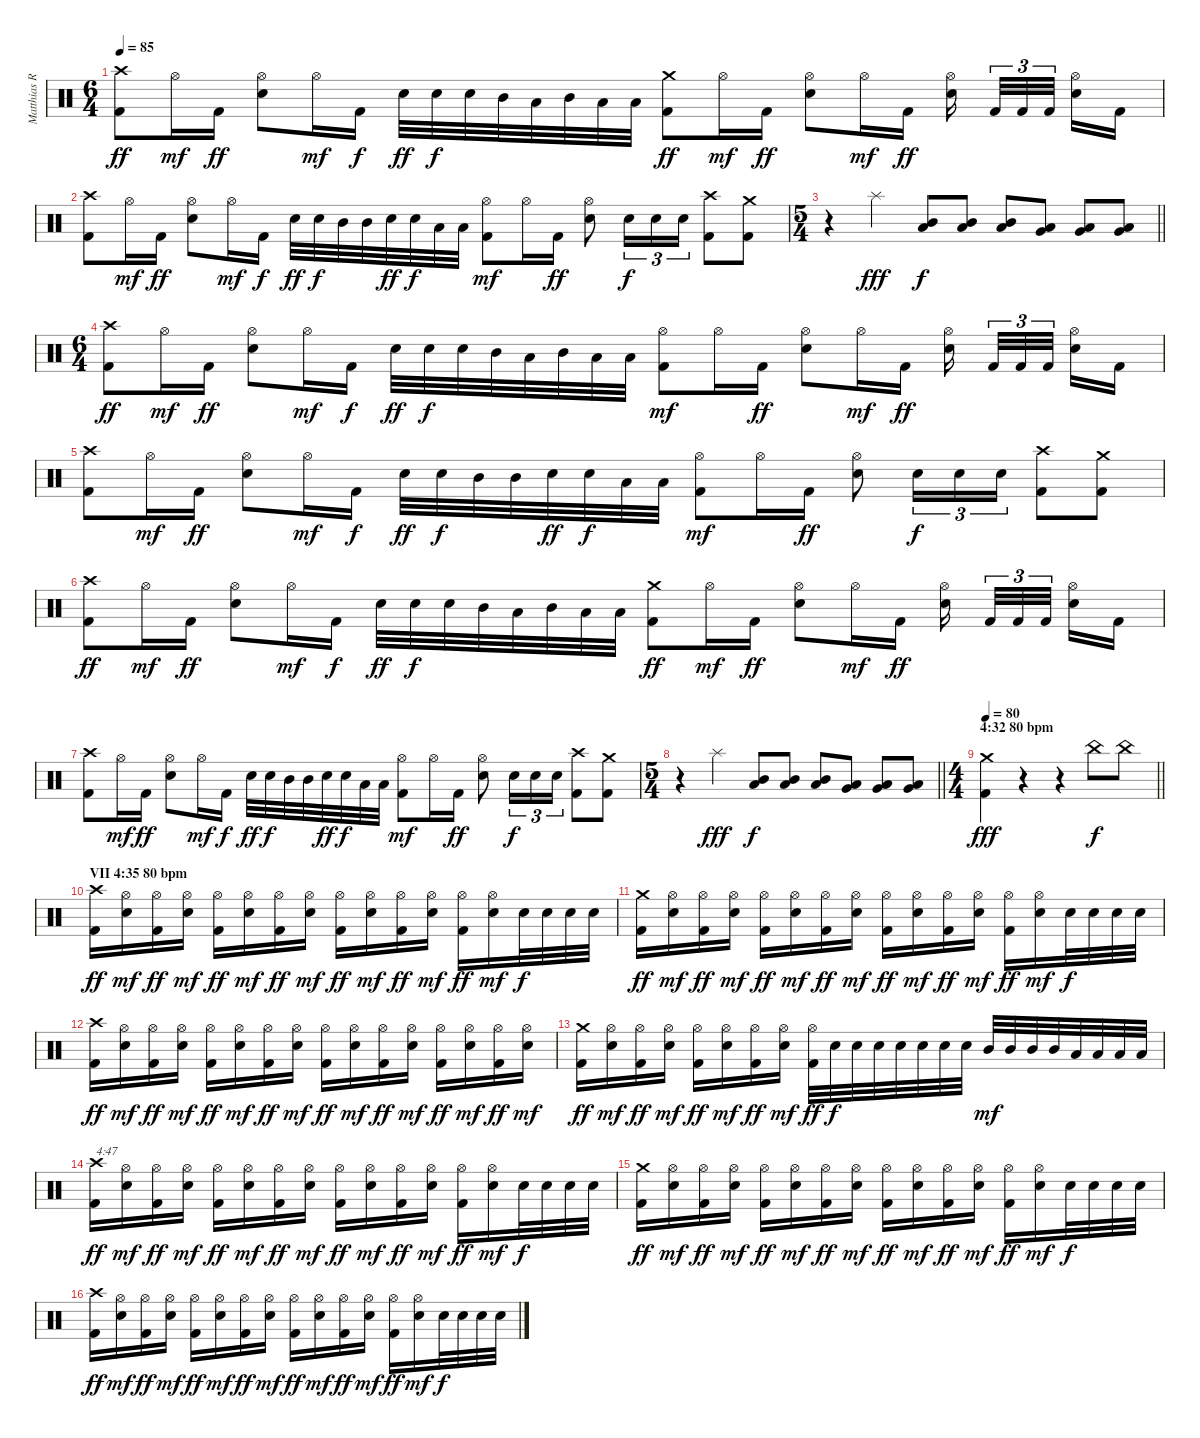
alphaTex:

\track ("Matthias R." "Matthias R") {instrument percussion}
\staff {score}
\articulation defaults
\ts (6 4)
\tempo 85
\clef neutral
\ks c
("Crash high (hit)" "Kick (hit) 2").8{dy ff} "Hi-Hat (open)".16{dy mf} "Kick (hit) 2".16{dy ff} ("Hi-Hat (open)" "Electric Snare (hit)").8 "Hi-Hat (open)".16{dy mf} "Kick (hit) 2".16{dy f} "Electric Snare (hit)".32{dy ff} "Electric Snare (hit)".32{dy f} "Electric Snare (hit)".32 "Mid Tom (hit)".32 "Low Tom (hit)".32 "Mid Tom (hit)".32 "Low Tom (hit)".32 "Low Tom (hit)".32 ("Crash medium (hit)" "Kick (hit) 2").8{dy ff} "Hi-Hat (open)".16{dy mf} "Kick (hit) 2".16{dy ff} ("Hi-Hat (open)" "Electric Snare (hit)").8 "Hi-Hat (open)".16{dy mf} "Kick (hit) 2".16{dy ff} ("Hi-Hat (open)" "Electric Snare (hit)").16{beam splitsecondary} "Kick (hit) 2".32{tu (3 2)} "Kick (hit) 2".32{tu (3 2)} "Kick (hit) 2".32{tu (3 2) beam splitsecondary} ("Hi-Hat (open)" "Electric Snare (hit)").16 "Kick (hit) 2".16 |
("Crash high (hit)" "Kick (hit) 2").8 "Hi-Hat (open)".16{dy mf} "Kick (hit) 2".16{dy ff} ("Hi-Hat (open)" "Electric Snare (hit)").8 "Hi-Hat (open)".16{dy mf} "Kick (hit) 2".16{dy f} "Electric Snare (hit)".32{dy ff} "Electric Snare (hit)".32{dy f} "Mid Tom (hit)".32 "Mid Tom (hit)".32 "Electric Snare (hit)".32{dy ff} "Electric Snare (hit)".32{dy f} "Low Tom (hit)".32 "Low Tom (hit)".32 ("Hi-Hat (open)" "Kick (hit) 2").8{dy mf} "Hi-Hat (open)".16 "Kick (hit) 2".16{dy ff} ("Hi-Hat (open)" "Electric Snare (hit)").8 "Electric Snare (hit)".16{tu (3 2) dy f} "Electric Snare (hit)".16{tu (3 2)} "Electric Snare (hit)".16{tu (3 2)} ("Crash high (hit)" "Kick (hit) 2").8 ("Crash medium (hit)" "Kick (hit) 2").8 |
\ts (5 4)
\barLineRight lightlight
r.4 "Splash (hit)".4{dy fff} ("Low Tom (hit)" "Mid Tom (hit)").8{dy f} ("Low Tom (hit)" "Mid Tom (hit)").8 ("Low Tom (hit)" "Mid Tom (hit)").8 ("Low Tom (hit)" "Very Low Tom (hit)").8 ("Low Tom (hit)" "Very Low Tom (hit)").8 ("Low Floor Tom (hit)" "Very Low Tom (hit)").8 |
\ts (6 4)
("Crash high (hit)" "Kick (hit) 2").8{dy ff} "Hi-Hat (open)".16{dy mf} "Kick (hit) 2".16{dy ff} ("Hi-Hat (open)" "Electric Snare (hit)").8 "Hi-Hat (open)".16{dy mf} "Kick (hit) 2".16{dy f} "Electric Snare (hit)".32{dy ff} "Electric Snare (hit)".32{dy f} "Electric Snare (hit)".32 "Mid Tom (hit)".32 "Low Tom (hit)".32 "Mid Tom (hit)".32 "Low Tom (hit)".32 "Low Tom (hit)".32 ("Hi-Hat (open)" "Kick (hit) 2").8{dy mf} "Hi-Hat (open)".16 "Kick (hit) 2".16{dy ff} ("Hi-Hat (open)" "Electric Snare (hit)").8 "Hi-Hat (open)".16{dy mf} "Kick (hit) 2".16{dy ff} ("Hi-Hat (open)" "Electric Snare (hit)").16{beam splitsecondary} "Kick (hit) 2".32{tu (3 2)} "Kick (hit) 2".32{tu (3 2)} "Kick (hit) 2".32{tu (3 2) beam splitsecondary} ("Hi-Hat (open)" "Electric Snare (hit)").16 "Kick (hit) 2".16 |
("Crash high (hit)" "Kick (hit) 2").8 "Hi-Hat (open)".16{dy mf} "Kick (hit) 2".16{dy ff} ("Hi-Hat (open)" "Electric Snare (hit)").8 "Hi-Hat (open)".16{dy mf} "Kick (hit) 2".16{dy f} "Electric Snare (hit)".32{dy ff} "Electric Snare (hit)".32{dy f} "Mid Tom (hit)".32 "Mid Tom (hit)".32 "Electric Snare (hit)".32{dy ff} "Electric Snare (hit)".32{dy f} "Low Tom (hit)".32 "Low Tom (hit)".32 ("Hi-Hat (open)" "Kick (hit) 2").8{dy mf} "Hi-Hat (open)".16 "Kick (hit) 2".16{dy ff} ("Hi-Hat (open)" "Electric Snare (hit)").8 "Electric Snare (hit)".16{tu (3 2) dy f} "Electric Snare (hit)".16{tu (3 2)} "Electric Snare (hit)".16{tu (3 2)} ("Crash high (hit)" "Kick (hit) 2").8 ("Crash medium (hit)" "Kick (hit) 2").8 |
("Crash high (hit)" "Kick (hit) 2").8{dy ff} "Hi-Hat (open)".16{dy mf} "Kick (hit) 2".16{dy ff} ("Hi-Hat (open)" "Electric Snare (hit)").8 "Hi-Hat (open)".16{dy mf} "Kick (hit) 2".16{dy f} "Electric Snare (hit)".32{dy ff} "Electric Snare (hit)".32{dy f} "Electric Snare (hit)".32 "Mid Tom (hit)".32 "Low Tom (hit)".32 "Mid Tom (hit)".32 "Low Tom (hit)".32 "Low Tom (hit)".32 ("Crash medium (hit)" "Kick (hit) 2").8{dy ff} "Hi-Hat (open)".16{dy mf} "Kick (hit) 2".16{dy ff} ("Hi-Hat (open)" "Electric Snare (hit)").8 "Hi-Hat (open)".16{dy mf} "Kick (hit) 2".16{dy ff} ("Hi-Hat (open)" "Electric Snare (hit)").16{beam splitsecondary} "Kick (hit) 2".32{tu (3 2)} "Kick (hit) 2".32{tu (3 2)} "Kick (hit) 2".32{tu (3 2) beam splitsecondary} ("Hi-Hat (open)" "Electric Snare (hit)").16 "Kick (hit) 2".16 |
("Crash high (hit)" "Kick (hit) 2").8 "Hi-Hat (open)".16{dy mf} "Kick (hit) 2".16{dy ff} ("Hi-Hat (open)" "Electric Snare (hit)").8 "Hi-Hat (open)".16{dy mf} "Kick (hit) 2".16{dy f} "Electric Snare (hit)".32{dy ff} "Electric Snare (hit)".32{dy f} "Mid Tom (hit)".32 "Mid Tom (hit)".32 "Electric Snare (hit)".32{dy ff} "Electric Snare (hit)".32{dy f} "Low Tom (hit)".32 "Low Tom (hit)".32 ("Hi-Hat (open)" "Kick (hit) 2").8{dy mf} "Hi-Hat (open)".16 "Kick (hit) 2".16{dy ff} ("Hi-Hat (open)" "Electric Snare (hit)").8 "Electric Snare (hit)".16{tu (3 2) dy f} "Electric Snare (hit)".16{tu (3 2)} "Electric Snare (hit)".16{tu (3 2)} ("Crash high (hit)" "Kick (hit) 2").8 ("Crash medium (hit)" "Kick (hit) 2").8 |
\ts (5 4)
\barLineRight lightlight
r.4 "Splash (hit)".4{dy fff} ("Low Tom (hit)" "Mid Tom (hit)").8{dy f} ("Low Tom (hit)" "Mid Tom (hit)").8 ("Low Tom (hit)" "Mid Tom (hit)").8 ("Low Tom (hit)" "Very Low Tom (hit)").8 ("Low Tom (hit)" "Very Low Tom (hit)").8 ("Low Floor Tom (hit)" "Very Low Tom (hit)").8 |
\ts (4 4)
\section ("" "4:32 80 bpm")
\tempo 80
\barLineRight lightlight
("Crash medium (hit)" "Kick (hit) 2").4{dy fff} r.4 r.4 "China (hit)".8{dy f} "China (hit)".8 |
\section ("" "VII 4:35 80 bpm")
("Crash high (hit)" "Kick (hit) 2").16{dy ff} ("Hi-Hat (open)" "Electric Snare (hit)").16{dy mf} ("Hi-Hat (open)" "Kick (hit) 2").16{dy ff} ("Hi-Hat (open)" "Electric Snare (hit)").16{dy mf} ("Hi-Hat (open)" "Kick (hit) 2").16{dy ff} ("Hi-Hat (open)" "Electric Snare (hit)").16{dy mf} ("Hi-Hat (open)" "Kick (hit) 2").16{dy ff} ("Hi-Hat (open)" "Electric Snare (hit)").16{dy mf} ("Hi-Hat (open)" "Kick (hit) 2").16{dy ff} ("Hi-Hat (open)" "Electric Snare (hit)").16{dy mf} ("Hi-Hat (open)" "Kick (hit) 2").16{dy ff} ("Hi-Hat (open)" "Electric Snare (hit)").16{dy mf} ("Hi-Hat (open)" "Kick (hit) 2").16{dy ff} ("Hi-Hat (open)" "Electric Snare (hit)").16{dy mf} "Electric Snare (hit)".32{dy f} "Electric Snare (hit)".32 "Electric Snare (hit)".32 "Electric Snare (hit)".32 |
("Crash medium (hit)" "Kick (hit) 2").16{dy ff} ("Hi-Hat (open)" "Electric Snare (hit)").16{dy mf} ("Hi-Hat (open)" "Kick (hit) 2").16{dy ff} ("Hi-Hat (open)" "Electric Snare (hit)").16{dy mf} ("Hi-Hat (open)" "Kick (hit) 2").16{dy ff} ("Hi-Hat (open)" "Electric Snare (hit)").16{dy mf} ("Hi-Hat (open)" "Kick (hit) 2").16{dy ff} ("Hi-Hat (open)" "Electric Snare (hit)").16{dy mf} ("Hi-Hat (open)" "Kick (hit) 2").16{dy ff} ("Hi-Hat (open)" "Electric Snare (hit)").16{dy mf} ("Hi-Hat (open)" "Kick (hit) 2").16{dy ff} ("Hi-Hat (open)" "Electric Snare (hit)").16{dy mf} ("Hi-Hat (open)" "Kick (hit) 2").16{dy ff} ("Hi-Hat (open)" "Electric Snare (hit)").16{dy mf} "Electric Snare (hit)".32{dy f} "Electric Snare (hit)".32 "Electric Snare (hit)".32 "Electric Snare (hit)".32 |
("Crash high (hit)" "Kick (hit) 2").16{dy ff} ("Hi-Hat (open)" "Electric Snare (hit)").16{dy mf} ("Hi-Hat (open)" "Kick (hit) 2").16{dy ff} ("Hi-Hat (open)" "Electric Snare (hit)").16{dy mf} ("Hi-Hat (open)" "Kick (hit) 2").16{dy ff} ("Hi-Hat (open)" "Electric Snare (hit)").16{dy mf} ("Hi-Hat (open)" "Kick (hit) 2").16{dy ff} ("Hi-Hat (open)" "Electric Snare (hit)").16{dy mf} ("Hi-Hat (open)" "Kick (hit) 2").16{dy ff} ("Hi-Hat (open)" "Electric Snare (hit)").16{dy mf} ("Hi-Hat (open)" "Kick (hit) 2").16{dy ff} ("Hi-Hat (open)" "Electric Snare (hit)").16{dy mf} ("Hi-Hat (open)" "Kick (hit) 2").16{dy ff} ("Hi-Hat (open)" "Electric Snare (hit)").16{dy mf} ("Hi-Hat (open)" "Kick (hit) 2").16{dy ff} ("Hi-Hat (open)" "Electric Snare (hit)").16{dy mf} |
("Crash medium (hit)" "Kick (hit) 2").16{dy ff} ("Hi-Hat (open)" "Electric Snare (hit)").16{dy mf} ("Hi-Hat (open)" "Kick (hit) 2").16{dy ff} ("Hi-Hat (open)" "Electric Snare (hit)").16{dy mf} ("Hi-Hat (open)" "Kick (hit) 2").16{dy ff} ("Hi-Hat (open)" "Electric Snare (hit)").16{dy mf} ("Hi-Hat (open)" "Kick (hit) 2").16{dy ff} ("Hi-Hat (open)" "Electric Snare (hit)").16{dy mf} ("Hi-Hat (open)" "Kick (hit) 2").32{dy ff} "Electric Snare (hit)".32{dy f} "Electric Snare (hit)".32 "Electric Snare (hit)".32 "Electric Snare (hit)".32 "Electric Snare (hit)".32 "Electric Snare (hit)".32 "Electric Snare (hit)".32 "Mid Tom (hit)".32{dy mf} "Mid Tom (hit)".32 "Mid Tom (hit)".32 "Mid Tom (hit)".32 "Low Tom (hit)".32 "Low Tom (hit)".32 "Low Tom (hit)".32 "Low Tom (hit)".32 |
("Crash high (hit)" "Kick (hit) 2").16{txt "4:47" dy ff} ("Hi-Hat (open)" "Electric Snare (hit)").16{dy mf} ("Hi-Hat (open)" "Kick (hit) 2").16{dy ff} ("Hi-Hat (open)" "Electric Snare (hit)").16{dy mf} ("Hi-Hat (open)" "Kick (hit) 2").16{dy ff} ("Hi-Hat (open)" "Electric Snare (hit)").16{dy mf} ("Hi-Hat (open)" "Kick (hit) 2").16{dy ff} ("Hi-Hat (open)" "Electric Snare (hit)").16{dy mf} ("Hi-Hat (open)" "Kick (hit) 2").16{dy ff} ("Hi-Hat (open)" "Electric Snare (hit)").16{dy mf} ("Hi-Hat (open)" "Kick (hit) 2").16{dy ff} ("Hi-Hat (open)" "Electric Snare (hit)").16{dy mf} ("Hi-Hat (open)" "Kick (hit) 2").16{dy ff} ("Hi-Hat (open)" "Electric Snare (hit)").16{dy mf} "Electric Snare (hit)".32{dy f} "Electric Snare (hit)".32 "Electric Snare (hit)".32 "Electric Snare (hit)".32 |
("Crash medium (hit)" "Kick (hit) 2").16{dy ff} ("Hi-Hat (open)" "Electric Snare (hit)").16{dy mf} ("Hi-Hat (open)" "Kick (hit) 2").16{dy ff} ("Hi-Hat (open)" "Electric Snare (hit)").16{dy mf} ("Hi-Hat (open)" "Kick (hit) 2").16{dy ff} ("Hi-Hat (open)" "Electric Snare (hit)").16{dy mf} ("Hi-Hat (open)" "Kick (hit) 2").16{dy ff} ("Hi-Hat (open)" "Electric Snare (hit)").16{dy mf} ("Hi-Hat (open)" "Kick (hit) 2").16{dy ff} ("Hi-Hat (open)" "Electric Snare (hit)").16{dy mf} ("Hi-Hat (open)" "Kick (hit) 2").16{dy ff} ("Hi-Hat (open)" "Electric Snare (hit)").16{dy mf} ("Hi-Hat (open)" "Kick (hit) 2").16{dy ff} ("Hi-Hat (open)" "Electric Snare (hit)").16{dy mf} "Electric Snare (hit)".32{dy f} "Electric Snare (hit)".32 "Electric Snare (hit)".32 "Electric Snare (hit)".32 |
("Crash high (hit)" "Kick (hit) 2").16{dy ff} ("Hi-Hat (open)" "Electric Snare (hit)").16{dy mf} ("Hi-Hat (open)" "Kick (hit) 2").16{dy ff} ("Hi-Hat (open)" "Electric Snare (hit)").16{dy mf} ("Hi-Hat (open)" "Kick (hit) 2").16{dy ff} ("Hi-Hat (open)" "Electric Snare (hit)").16{dy mf} ("Hi-Hat (open)" "Kick (hit) 2").16{dy ff} ("Hi-Hat (open)" "Electric Snare (hit)").16{dy mf} ("Hi-Hat (open)" "Kick (hit) 2").16{dy ff} ("Hi-Hat (open)" "Electric Snare (hit)").16{dy mf} ("Hi-Hat (open)" "Kick (hit) 2").16{dy ff} ("Hi-Hat (open)" "Electric Snare (hit)").16{dy mf} ("Hi-Hat (open)" "Kick (hit) 2").16{dy ff} ("Hi-Hat (open)" "Electric Snare (hit)").16{dy mf} "Electric Snare (hit)".32{dy f} "Electric Snare (hit)".32 "Electric Snare (hit)".32 "Electric Snare (hit)".32
